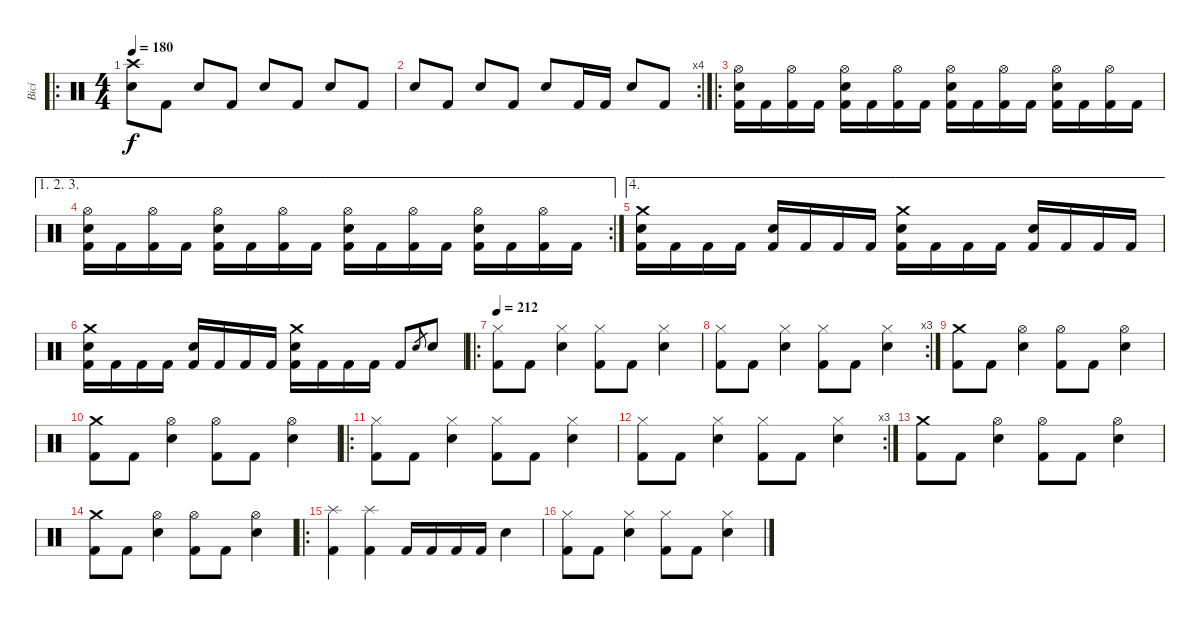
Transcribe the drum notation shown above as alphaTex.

\track ("Bicí" "Bicí") {instrument percussion}
\staff {score}
\articulation defaults
\ro
\ts (4 4)
\tempo 180
\clef neutral
\ks c
("Crash high (hit)" "Snare (hit) 2").8{dy f} "Kick (hit) 2".8 "Snare (hit) 2".8 "Kick (hit) 2".8 "Snare (hit) 2".8 "Kick (hit) 2".8 "Snare (hit) 2".8 "Kick (hit) 2".8 |
\rc 4 "Snare (hit) 2".8 "Kick (hit) 2".8 "Snare (hit) 2".8 "Kick (hit) 2".8 "Snare (hit) 2".8 "Kick (hit) 2".16 "Kick (hit) 2".16 "Snare (hit) 2".8 "Kick (hit) 2".8
|
\ro
("Kick (hit) 2" "Snare (hit) 2" "Hi-Hat (open)").16 "Kick (hit) 2".16 ("Kick (hit) 2" "Hi-Hat (open)").16 "Kick (hit) 2".16 ("Kick (hit) 2" "Snare (hit) 2" "Hi-Hat (open)").16 "Kick (hit) 2".16 ("Kick (hit) 2" "Hi-Hat (open)").16 "Kick (hit) 2".16 ("Kick (hit) 2" "Snare (hit) 2" "Hi-Hat (open)").16 "Kick (hit) 2".16 ("Kick (hit) 2" "Hi-Hat (open)").16 "Kick (hit) 2".16 ("Kick (hit) 2" "Snare (hit) 2" "Hi-Hat (open)").16 "Kick (hit) 2".16 ("Kick (hit) 2" "Hi-Hat (open)").16 "Kick (hit) 2".16 |
\ae (1 2 3)
\rc 2
("Kick (hit) 2" "Snare (hit) 2" "Hi-Hat (open)").16 "Kick (hit) 2".16 ("Kick (hit) 2" "Hi-Hat (open)").16 "Kick (hit) 2".16 ("Kick (hit) 2" "Snare (hit) 2" "Hi-Hat (open)").16 "Kick (hit) 2".16 ("Kick (hit) 2" "Hi-Hat (open)").16 "Kick (hit) 2".16 ("Kick (hit) 2" "Snare (hit) 2" "Hi-Hat (open)").16 "Kick (hit) 2".16 ("Kick (hit) 2" "Hi-Hat (open)").16 "Kick (hit) 2".16 ("Kick (hit) 2" "Snare (hit) 2" "Hi-Hat (open)").16 "Kick (hit) 2".16 ("Kick (hit) 2" "Hi-Hat (open)").16 "Kick (hit) 2".16 |
\ae 4
("Kick (hit) 2" "Snare (hit) 2" "Crash medium (hit)").16 "Kick (hit) 2".16 "Kick (hit) 2".16 "Kick (hit) 2".16 ("Kick (hit) 2" "Snare (hit) 2").16 "Kick (hit) 2".16 "Kick (hit) 2".16 "Kick (hit) 2".16 ("Kick (hit) 2" "Snare (hit) 2" "Crash medium (hit)").16 "Kick (hit) 2".16 "Kick (hit) 2".16 "Kick (hit) 2".16 ("Kick (hit) 2" "Snare (hit) 2").16 "Kick (hit) 2".16 "Kick (hit) 2".16 "Kick (hit) 2".16 |
("Kick (hit) 2" "Snare (hit) 2" "Crash medium (hit)").16 "Kick (hit) 2".16 "Kick (hit) 2".16 "Kick (hit) 2".16 ("Kick (hit) 2" "Snare (hit) 2").16 "Kick (hit) 2".16 "Kick (hit) 2".16 "Kick (hit) 2".16 ("Kick (hit) 2" "Snare (hit) 2" "Crash medium (hit)").16 "Kick (hit) 2".16 "Kick (hit) 2".16 "Kick (hit) 2".16 "Kick (hit) 2".8 "Snare (hit) 2".8{gr} "Snare (hit) 2".8 |
\ro
\tempo 212
("Kick (hit) 2" "Hi-Hat (closed)").8 "Kick (hit) 2".8 ("Snare (hit) 2" "Hi-Hat (closed)").4 ("Kick (hit) 2" "Hi-Hat (closed)").8 "Kick (hit) 2".8 ("Snare (hit) 2" "Hi-Hat (closed)").4 |
\rc 3
("Kick (hit) 2" "Hi-Hat (closed)").8 "Kick (hit) 2".8 ("Snare (hit) 2" "Hi-Hat (closed)").4 ("Kick (hit) 2" "Hi-Hat (closed)").8 "Kick (hit) 2".8 ("Snare (hit) 2" "Hi-Hat (closed)").4 |
("Kick (hit) 2" "Crash medium (hit)").8 "Kick (hit) 2".8 ("Snare (hit) 2" "Hi-Hat (open)").4 ("Kick (hit) 2" "Hi-Hat (open)").8 "Kick (hit) 2".8 ("Snare (hit) 2" "Hi-Hat (open)").4 |
("Kick (hit) 2" "Crash medium (hit)").8 "Kick (hit) 2".8 ("Snare (hit) 2" "Hi-Hat (open)").4 ("Kick (hit) 2" "Hi-Hat (open)").8 "Kick (hit) 2".8 ("Snare (hit) 2" "Hi-Hat (open)").4 |
\ro
("Kick (hit) 2" "Hi-Hat (closed)").8 "Kick (hit) 2".8 ("Snare (hit) 2" "Hi-Hat (closed)").4 ("Kick (hit) 2" "Hi-Hat (closed)").8 "Kick (hit) 2".8 ("Snare (hit) 2" "Hi-Hat (closed)").4 |
\rc 3
("Kick (hit) 2" "Hi-Hat (closed)").8 "Kick (hit) 2".8 ("Snare (hit) 2" "Hi-Hat (closed)").4 ("Kick (hit) 2" "Hi-Hat (closed)").8 "Kick (hit) 2".8 ("Snare (hit) 2" "Hi-Hat (closed)").4 |
("Kick (hit) 2" "Crash medium (hit)").8 "Kick (hit) 2".8 ("Snare (hit) 2" "Hi-Hat (open)").4 ("Kick (hit) 2" "Hi-Hat (open)").8 "Kick (hit) 2".8 ("Snare (hit) 2" "Hi-Hat (open)").4 |
("Kick (hit) 2" "Crash medium (hit)").8 "Kick (hit) 2".8 ("Snare (hit) 2" "Hi-Hat (open)").4 ("Kick (hit) 2" "Hi-Hat (open)").8 "Kick (hit) 2".8 ("Snare (hit) 2" "Hi-Hat (open)").4 |
\ro
("Kick (hit) 2" "Splash (hit)").4 ("Kick (hit) 2" "Splash (hit)").4 "Kick (hit) 2".16 "Kick (hit) 2".16 "Kick (hit) 2".16 "Kick (hit) 2".16 "Snare (hit) 2".4 |
("Kick (hit) 2" "Hi-Hat (closed)").8 "Kick (hit) 2".8 ("Snare (hit) 2" "Hi-Hat (closed)").4 ("Kick (hit) 2" "Hi-Hat (closed)").8 "Kick (hit) 2".8 ("Snare (hit) 2" "Hi-Hat (closed)").4
